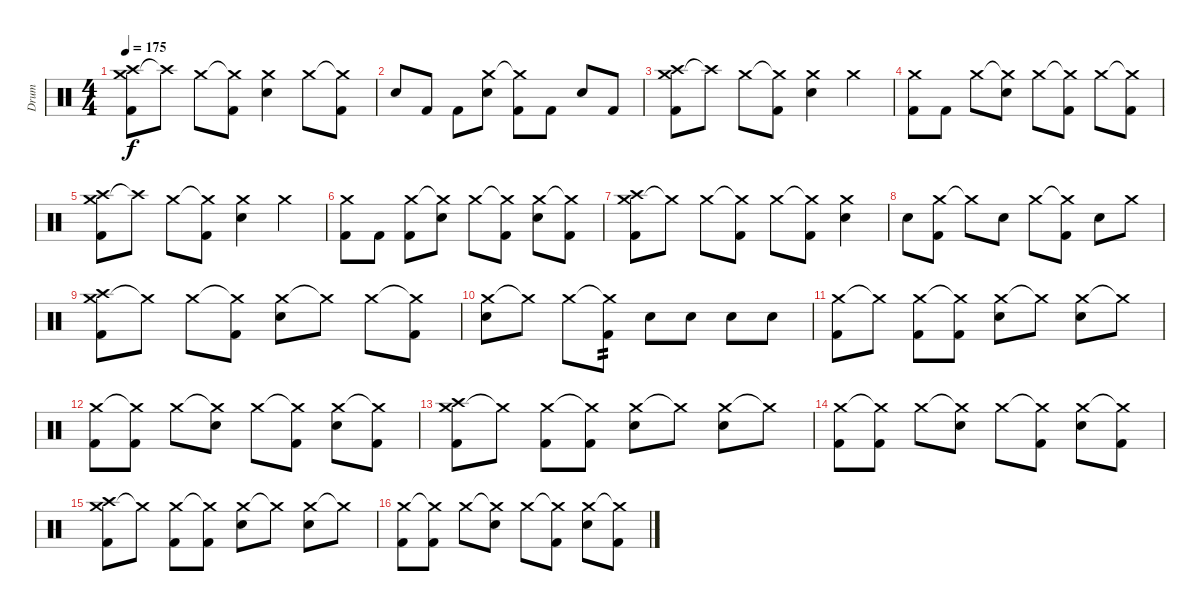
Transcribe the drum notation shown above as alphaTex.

\track ("Drum" "Drum") {instrument percussion}
\staff {score}
\articulation defaults
\ts (4 4)
\tempo 175
\clef neutral
\ks c
("Crash medium (hit)" "Crash high (hit)" "Kick (hit) 2").8{dy f} "Crash high (hit)"{t}.8 "Crash medium (hit)".8 ("Crash medium (hit)"{t} "Kick (hit) 2").8 ("Crash medium (hit)" "Snare (hit) 2").4 "Crash medium (hit)".8 ("Crash medium (hit)"{t} "Kick (hit) 2").8 |
"Snare (hit) 2".8 "Kick (hit) 2".8 "Kick (hit) 2".8 ("Crash medium (hit)" "Snare (hit) 2").8 ("Crash medium (hit)"{t} "Kick (hit) 2").8 "Kick (hit) 2".8 "Snare (hit) 2".8 "Kick (hit) 2".8 |
("Crash medium (hit)" "Crash high (hit)" "Kick (hit) 2").8 "Crash high (hit)"{t}.8 "Crash medium (hit)".8 ("Crash medium (hit)"{t} "Kick (hit) 2").8 ("Crash medium (hit)" "Snare (hit) 2").4 "Crash medium (hit)".4 |
("Crash medium (hit)" "Kick (hit) 2").8 "Kick (hit) 2".8 "Crash medium (hit)".8 ("Crash medium (hit)"{t} "Snare (hit) 2").8 "Crash medium (hit)".8 ("Crash medium (hit)"{t} "Kick (hit) 2").8 "Crash medium (hit)".8 ("Crash medium (hit)"{t} "Kick (hit) 2").8 |
("Crash medium (hit)" "Crash high (hit)" "Kick (hit) 2").8 "Crash high (hit)"{t}.8 "Crash medium (hit)".8 ("Crash medium (hit)"{t} "Kick (hit) 2").8 ("Crash medium (hit)" "Snare (hit) 2").4 "Crash medium (hit)".4 |
("Crash medium (hit)" "Kick (hit) 2").8 "Kick (hit) 2".8 ("Crash medium (hit)" "Kick (hit) 2").8 ("Crash medium (hit)"{t} "Snare (hit) 2").8 "Crash medium (hit)".8 ("Crash medium (hit)"{t} "Kick (hit) 2").8 ("Crash medium (hit)" "Snare (hit) 2").8 ("Crash medium (hit)"{t} "Kick (hit) 2").8 |
("Crash medium (hit)" "Crash high (hit)" "Kick (hit) 2").8 "Crash medium (hit)"{t}.8 "Crash medium (hit)".8 ("Crash medium (hit)"{t} "Kick (hit) 2").8 "Crash medium (hit)".8 ("Crash medium (hit)"{t} "Kick (hit) 2").8 ("Crash medium (hit)" "Snare (hit) 2").4 |
"Snare (hit) 2".8 ("Crash medium (hit)" "Kick (hit) 2").8 "Crash medium (hit)"{t}.8 "Snare (hit) 2".8 "Crash medium (hit)".8 ("Crash medium (hit)"{t} "Kick (hit) 2").8 "Snare (hit) 2".8 "Crash medium (hit)".8 |
("Crash medium (hit)" "Crash high (hit)" "Kick (hit) 2").8 "Crash medium (hit)"{t}.8 "Crash medium (hit)".8 ("Crash medium (hit)"{t} "Kick (hit) 2").8 ("Crash medium (hit)" "Snare (hit) 2").8 "Crash medium (hit)"{t}.8 "Crash medium (hit)".8 ("Crash medium (hit)"{t} "Kick (hit) 2").8 |
("Crash medium (hit)" "Snare (hit) 2").8 "Crash medium (hit)"{t}.8 "Crash medium (hit)".8 ("Crash medium (hit)"{t} "Kick (hit) 2").8{tp 2} "Snare (hit) 2".8 "Snare (hit) 2".8 "Snare (hit) 2".8 "Snare (hit) 2".8 |
("Crash medium (hit)" "Kick (hit) 2").8 "Crash medium (hit)"{t}.8 ("Crash medium (hit)" "Kick (hit) 2").8 ("Crash medium (hit)"{t} "Kick (hit) 2").8 ("Crash medium (hit)" "Snare (hit) 2").8 "Crash medium (hit)"{t}.8 ("Crash medium (hit)" "Snare (hit) 2").8 "Crash medium (hit)"{t}.8 |
("Crash medium (hit)" "Kick (hit) 2").8 ("Crash medium (hit)"{t} "Kick (hit) 2").8 "Crash medium (hit)".8 ("Crash medium (hit)"{t} "Snare (hit) 2").8 "Crash medium (hit)".8 ("Crash medium (hit)"{t} "Kick (hit) 2").8 ("Crash medium (hit)" "Snare (hit) 2").8 ("Crash medium (hit)"{t} "Kick (hit) 2").8 |
("Crash medium (hit)" "Crash high (hit)" "Kick (hit) 2").8 "Crash medium (hit)"{t}.8 ("Crash medium (hit)" "Kick (hit) 2").8 ("Crash medium (hit)"{t} "Kick (hit) 2").8 ("Crash medium (hit)" "Snare (hit) 2").8 "Crash medium (hit)"{t}.8 ("Crash medium (hit)" "Snare (hit) 2").8 "Crash medium (hit)"{t}.8 |
("Crash medium (hit)" "Kick (hit) 2").8 ("Crash medium (hit)"{t} "Kick (hit) 2").8 "Crash medium (hit)".8 ("Crash medium (hit)"{t} "Snare (hit) 2").8 "Crash medium (hit)".8 ("Crash medium (hit)"{t} "Kick (hit) 2").8 ("Crash medium (hit)" "Snare (hit) 2").8 ("Crash medium (hit)"{t} "Kick (hit) 2").8 |
("Crash medium (hit)" "Crash high (hit)" "Kick (hit) 2").8 "Crash medium (hit)"{t}.8 ("Crash medium (hit)" "Kick (hit) 2").8 ("Crash medium (hit)"{t} "Kick (hit) 2").8 ("Crash medium (hit)" "Snare (hit) 2").8 "Crash medium (hit)"{t}.8 ("Crash medium (hit)" "Snare (hit) 2").8 "Crash medium (hit)"{t}.8 |
("Crash medium (hit)" "Kick (hit) 2").8 ("Crash medium (hit)"{t} "Kick (hit) 2").8 "Crash medium (hit)".8 ("Crash medium (hit)"{t} "Snare (hit) 2").8 "Crash medium (hit)".8 ("Crash medium (hit)"{t} "Kick (hit) 2").8 ("Crash medium (hit)" "Snare (hit) 2").8 ("Crash medium (hit)"{t} "Kick (hit) 2").8
